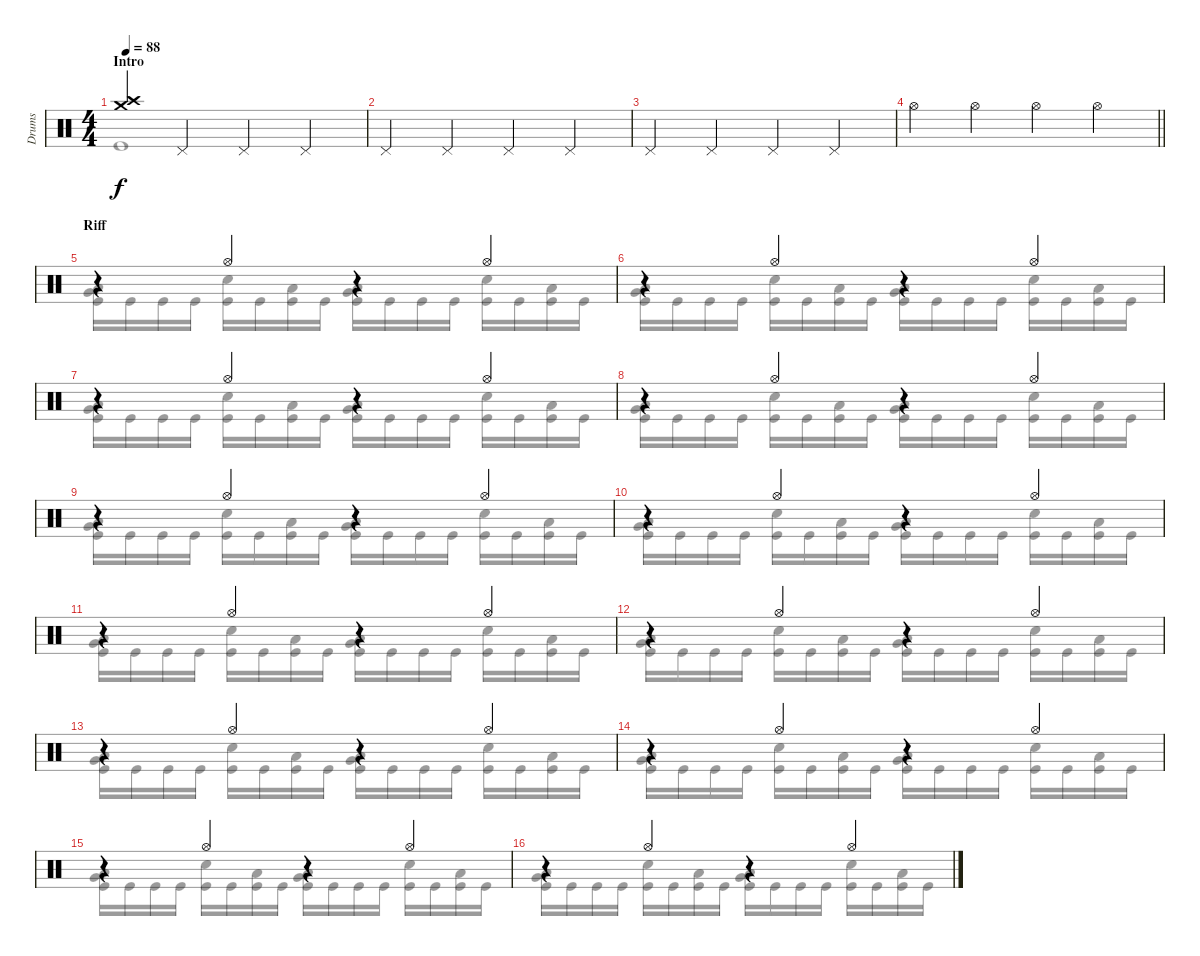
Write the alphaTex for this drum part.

\track ("Drums" "Drums") {instrument percussion}
\staff {score}
\articulation defaults
\voice
\ts (4 4)
\section ("" "Intro")
\tempo 88
\clef neutral
\ks c
("Crash medium (hit)" "Crash high (hit)").4{dy f} "Pedal Hi-Hat (hit)".4 "Pedal Hi-Hat (hit)".4 "Pedal Hi-Hat (hit)".4 |
"Pedal Hi-Hat (hit)".4 "Pedal Hi-Hat (hit)".4 "Pedal Hi-Hat (hit)".4 "Pedal Hi-Hat (hit)".4 |
"Pedal Hi-Hat (hit)".4 "Pedal Hi-Hat (hit)".4 "Pedal Hi-Hat (hit)".4 "Pedal Hi-Hat (hit)".4 |
\barLineRight lightlight "Hi-Hat (open)".4 "Hi-Hat (open)".4 "Hi-Hat (open)".4 "Hi-Hat (open)".4
|
\section ("" "Riff")
r.4 "Hi-Hat (open)".4 r.4 "Hi-Hat (open)".4 |
r.4 "Hi-Hat (open)".4 r.4 "Hi-Hat (open)".4 |
r.4 "Hi-Hat (open)".4 r.4 "Hi-Hat (open)".4 |
r.4 "Hi-Hat (open)".4 r.4 "Hi-Hat (open)".4 |
r.4 "Hi-Hat (open)".4 r.4 "Hi-Hat (open)".4 |
r.4 "Hi-Hat (open)".4 r.4 "Hi-Hat (open)".4 |
r.4 "Hi-Hat (open)".4 r.4 "Hi-Hat (open)".4 |
r.4 "Hi-Hat (open)".4 r.4 "Hi-Hat (open)".4 |
r.4 "Hi-Hat (open)".4 r.4 "Hi-Hat (open)".4 |
r.4 "Hi-Hat (open)".4 r.4 "Hi-Hat (open)".4 |
r.4 "Hi-Hat (open)".4 r.4 "Hi-Hat (open)".4 |
r.4 "Hi-Hat (open)".4 r.4 "Hi-Hat (open)".4
\voice
\clef neutral
\ottava regular
\simile none
\ks c "Kick (hit)".1{dy f}
|
|
|
\barLineRight lightlight
|
("Very Low Tom (hit)" "Low Floor Tom (hit)" "Kick (hit)").16 "Kick (hit)".16 "Kick (hit)".16 "Kick (hit)".16 ("Snare (hit) 2" "Kick (hit)").16 "Kick (hit)".16 ("Low Tom (hit)" "Kick (hit)").16 "Kick (hit)".16 ("Very Low Tom (hit)" "Low Floor Tom (hit)" "Kick (hit)").16 "Kick (hit)".16 "Kick (hit)".16 "Kick (hit)".16 ("Snare (hit) 2" "Kick (hit)").16 "Kick (hit)".16 ("Low Tom (hit)" "Kick (hit)").16 "Kick (hit)".16 |
("Very Low Tom (hit)" "Low Floor Tom (hit)" "Kick (hit)").16 "Kick (hit)".16 "Kick (hit)".16 "Kick (hit)".16 ("Snare (hit) 2" "Kick (hit)").16 "Kick (hit)".16 ("Low Tom (hit)" "Kick (hit)").16 "Kick (hit)".16 ("Very Low Tom (hit)" "Low Floor Tom (hit)" "Kick (hit)").16 "Kick (hit)".16 "Kick (hit)".16 "Kick (hit)".16 ("Snare (hit) 2" "Kick (hit)").16 "Kick (hit)".16 ("Low Tom (hit)" "Kick (hit)").16 "Kick (hit)".16 |
("Very Low Tom (hit)" "Low Floor Tom (hit)" "Kick (hit)").16 "Kick (hit)".16 "Kick (hit)".16 "Kick (hit)".16 ("Snare (hit) 2" "Kick (hit)").16 "Kick (hit)".16 ("Low Tom (hit)" "Kick (hit)").16 "Kick (hit)".16 ("Very Low Tom (hit)" "Low Floor Tom (hit)" "Kick (hit)").16 "Kick (hit)".16 "Kick (hit)".16 "Kick (hit)".16 ("Snare (hit) 2" "Kick (hit)").16 "Kick (hit)".16 ("Low Tom (hit)" "Kick (hit)").16 "Kick (hit)".16 |
("Very Low Tom (hit)" "Low Floor Tom (hit)" "Kick (hit)").16 "Kick (hit)".16 "Kick (hit)".16 "Kick (hit)".16 ("Snare (hit) 2" "Kick (hit)").16 "Kick (hit)".16 ("Low Tom (hit)" "Kick (hit)").16 "Kick (hit)".16 ("Very Low Tom (hit)" "Low Floor Tom (hit)" "Kick (hit)").16 "Kick (hit)".16 "Kick (hit)".16 "Kick (hit)".16 ("Snare (hit) 2" "Kick (hit)").16 "Kick (hit)".16 ("Low Tom (hit)" "Kick (hit)").16 "Kick (hit)".16 |
("Very Low Tom (hit)" "Low Floor Tom (hit)" "Kick (hit)").16 "Kick (hit)".16 "Kick (hit)".16 "Kick (hit)".16 ("Snare (hit) 2" "Kick (hit)").16 "Kick (hit)".16 ("Low Tom (hit)" "Kick (hit)").16 "Kick (hit)".16 ("Very Low Tom (hit)" "Low Floor Tom (hit)" "Kick (hit)").16 "Kick (hit)".16 "Kick (hit)".16 "Kick (hit)".16 ("Snare (hit) 2" "Kick (hit)").16 "Kick (hit)".16 ("Low Tom (hit)" "Kick (hit)").16 "Kick (hit)".16 |
("Very Low Tom (hit)" "Low Floor Tom (hit)" "Kick (hit)").16 "Kick (hit)".16 "Kick (hit)".16 "Kick (hit)".16 ("Snare (hit) 2" "Kick (hit)").16 "Kick (hit)".16 ("Low Tom (hit)" "Kick (hit)").16 "Kick (hit)".16 ("Very Low Tom (hit)" "Low Floor Tom (hit)" "Kick (hit)").16 "Kick (hit)".16 "Kick (hit)".16 "Kick (hit)".16 ("Snare (hit) 2" "Kick (hit)").16 "Kick (hit)".16 ("Low Tom (hit)" "Kick (hit)").16 "Kick (hit)".16 |
("Very Low Tom (hit)" "Low Floor Tom (hit)" "Kick (hit)").16 "Kick (hit)".16 "Kick (hit)".16 "Kick (hit)".16 ("Snare (hit) 2" "Kick (hit)").16 "Kick (hit)".16 ("Low Tom (hit)" "Kick (hit)").16 "Kick (hit)".16 ("Very Low Tom (hit)" "Low Floor Tom (hit)" "Kick (hit)").16 "Kick (hit)".16 "Kick (hit)".16 "Kick (hit)".16 ("Snare (hit) 2" "Kick (hit)").16 "Kick (hit)".16 ("Low Tom (hit)" "Kick (hit)").16 "Kick (hit)".16 |
("Very Low Tom (hit)" "Low Floor Tom (hit)" "Kick (hit)").16 "Kick (hit)".16 "Kick (hit)".16 "Kick (hit)".16 ("Snare (hit) 2" "Kick (hit)").16 "Kick (hit)".16 ("Low Tom (hit)" "Kick (hit)").16 "Kick (hit)".16 ("Very Low Tom (hit)" "Low Floor Tom (hit)" "Kick (hit)").16 "Kick (hit)".16 "Kick (hit)".16 "Kick (hit)".16 ("Snare (hit) 2" "Kick (hit)").16 "Kick (hit)".16 ("Low Tom (hit)" "Kick (hit)").16 "Kick (hit)".16 |
("Very Low Tom (hit)" "Low Floor Tom (hit)" "Kick (hit)").16 "Kick (hit)".16 "Kick (hit)".16 "Kick (hit)".16 ("Snare (hit) 2" "Kick (hit)").16 "Kick (hit)".16 ("Low Tom (hit)" "Kick (hit)").16 "Kick (hit)".16 ("Very Low Tom (hit)" "Low Floor Tom (hit)" "Kick (hit)").16 "Kick (hit)".16 "Kick (hit)".16 "Kick (hit)".16 ("Snare (hit) 2" "Kick (hit)").16 "Kick (hit)".16 ("Low Tom (hit)" "Kick (hit)").16 "Kick (hit)".16 |
("Very Low Tom (hit)" "Low Floor Tom (hit)" "Kick (hit)").16 "Kick (hit)".16 "Kick (hit)".16 "Kick (hit)".16 ("Snare (hit) 2" "Kick (hit)").16 "Kick (hit)".16 ("Low Tom (hit)" "Kick (hit)").16 "Kick (hit)".16 ("Very Low Tom (hit)" "Low Floor Tom (hit)" "Kick (hit)").16 "Kick (hit)".16 "Kick (hit)".16 "Kick (hit)".16 ("Snare (hit) 2" "Kick (hit)").16 "Kick (hit)".16 ("Low Tom (hit)" "Kick (hit)").16 "Kick (hit)".16 |
("Very Low Tom (hit)" "Low Floor Tom (hit)" "Kick (hit)").16 "Kick (hit)".16 "Kick (hit)".16 "Kick (hit)".16 ("Snare (hit) 2" "Kick (hit)").16 "Kick (hit)".16 ("Low Tom (hit)" "Kick (hit)").16 "Kick (hit)".16 ("Very Low Tom (hit)" "Low Floor Tom (hit)" "Kick (hit)").16 "Kick (hit)".16 "Kick (hit)".16 "Kick (hit)".16 ("Snare (hit) 2" "Kick (hit)").16 "Kick (hit)".16 ("Low Tom (hit)" "Kick (hit)").16 "Kick (hit)".16 |
("Very Low Tom (hit)" "Low Floor Tom (hit)" "Kick (hit)").16 "Kick (hit)".16 "Kick (hit)".16 "Kick (hit)".16 ("Snare (hit) 2" "Kick (hit)").16 "Kick (hit)".16 ("Low Tom (hit)" "Kick (hit)").16 "Kick (hit)".16 ("Very Low Tom (hit)" "Low Floor Tom (hit)" "Kick (hit)").16 "Kick (hit)".16 "Kick (hit)".16 "Kick (hit)".16 ("Snare (hit) 2" "Kick (hit)").16 "Kick (hit)".16 ("Low Tom (hit)" "Kick (hit)").16 "Kick (hit)".16
